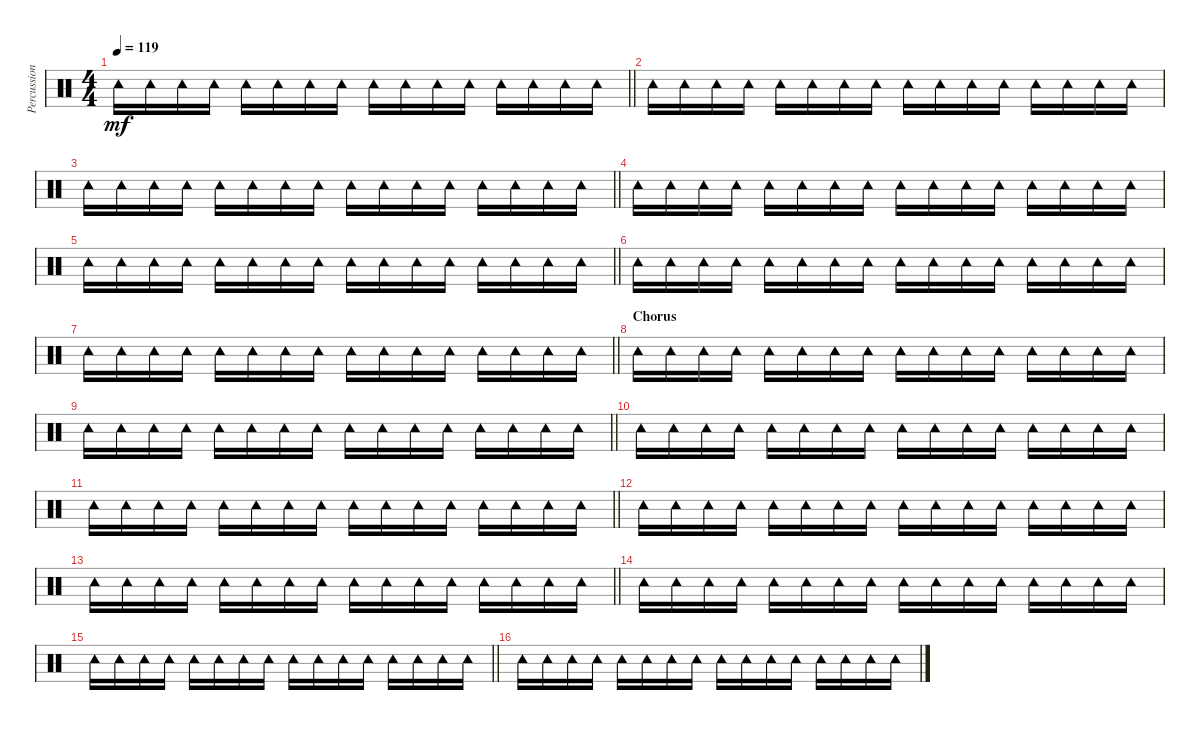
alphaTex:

\track ("Percussions" "Percussion") {instrument percussion}
\staff {score}
\articulation defaults
\ts (4 4)
\tempo 119
\clef neutral
\barLineRight lightlight
\ks c "Tambourine (hit)".16{dy mf} "Tambourine (hit)".16 "Tambourine (hit)".16 "Tambourine (hit)".16 "Tambourine (hit)".16 "Tambourine (hit)".16 "Tambourine (hit)".16 "Tambourine (hit)".16 "Tambourine (hit)".16 "Tambourine (hit)".16 "Tambourine (hit)".16 "Tambourine (hit)".16 "Tambourine (hit)".16 "Tambourine (hit)".16 "Tambourine (hit)".16 "Tambourine (hit)".16
|
"Tambourine (hit)".16 "Tambourine (hit)".16 "Tambourine (hit)".16 "Tambourine (hit)".16 "Tambourine (hit)".16 "Tambourine (hit)".16 "Tambourine (hit)".16 "Tambourine (hit)".16 "Tambourine (hit)".16 "Tambourine (hit)".16 "Tambourine (hit)".16 "Tambourine (hit)".16 "Tambourine (hit)".16 "Tambourine (hit)".16 "Tambourine (hit)".16 "Tambourine (hit)".16 |
\barLineRight lightlight "Tambourine (hit)".16 "Tambourine (hit)".16 "Tambourine (hit)".16 "Tambourine (hit)".16 "Tambourine (hit)".16 "Tambourine (hit)".16 "Tambourine (hit)".16 "Tambourine (hit)".16 "Tambourine (hit)".16 "Tambourine (hit)".16 "Tambourine (hit)".16 "Tambourine (hit)".16 "Tambourine (hit)".16 "Tambourine (hit)".16 "Tambourine (hit)".16 "Tambourine (hit)".16
|
"Tambourine (hit)".16 "Tambourine (hit)".16 "Tambourine (hit)".16 "Tambourine (hit)".16 "Tambourine (hit)".16 "Tambourine (hit)".16 "Tambourine (hit)".16 "Tambourine (hit)".16 "Tambourine (hit)".16 "Tambourine (hit)".16 "Tambourine (hit)".16 "Tambourine (hit)".16 "Tambourine (hit)".16 "Tambourine (hit)".16 "Tambourine (hit)".16 "Tambourine (hit)".16 |
\barLineRight lightlight "Tambourine (hit)".16 "Tambourine (hit)".16 "Tambourine (hit)".16 "Tambourine (hit)".16 "Tambourine (hit)".16 "Tambourine (hit)".16 "Tambourine (hit)".16 "Tambourine (hit)".16 "Tambourine (hit)".16 "Tambourine (hit)".16 "Tambourine (hit)".16 "Tambourine (hit)".16 "Tambourine (hit)".16 "Tambourine (hit)".16 "Tambourine (hit)".16 "Tambourine (hit)".16
|
"Tambourine (hit)".16 "Tambourine (hit)".16 "Tambourine (hit)".16 "Tambourine (hit)".16 "Tambourine (hit)".16 "Tambourine (hit)".16 "Tambourine (hit)".16 "Tambourine (hit)".16 "Tambourine (hit)".16 "Tambourine (hit)".16 "Tambourine (hit)".16 "Tambourine (hit)".16 "Tambourine (hit)".16 "Tambourine (hit)".16 "Tambourine (hit)".16 "Tambourine (hit)".16 |
\barLineRight lightlight "Tambourine (hit)".16 "Tambourine (hit)".16 "Tambourine (hit)".16 "Tambourine (hit)".16 "Tambourine (hit)".16 "Tambourine (hit)".16 "Tambourine (hit)".16 "Tambourine (hit)".16 "Tambourine (hit)".16 "Tambourine (hit)".16 "Tambourine (hit)".16 "Tambourine (hit)".16 "Tambourine (hit)".16 "Tambourine (hit)".16 "Tambourine (hit)".16 "Tambourine (hit)".16
|
\section ("" "Chorus")
"Tambourine (hit)".16 "Tambourine (hit)".16 "Tambourine (hit)".16 "Tambourine (hit)".16 "Tambourine (hit)".16 "Tambourine (hit)".16 "Tambourine (hit)".16 "Tambourine (hit)".16 "Tambourine (hit)".16 "Tambourine (hit)".16 "Tambourine (hit)".16 "Tambourine (hit)".16 "Tambourine (hit)".16 "Tambourine (hit)".16 "Tambourine (hit)".16 "Tambourine (hit)".16 |
\barLineRight lightlight "Tambourine (hit)".16 "Tambourine (hit)".16 "Tambourine (hit)".16 "Tambourine (hit)".16 "Tambourine (hit)".16 "Tambourine (hit)".16 "Tambourine (hit)".16 "Tambourine (hit)".16 "Tambourine (hit)".16 "Tambourine (hit)".16 "Tambourine (hit)".16 "Tambourine (hit)".16 "Tambourine (hit)".16 "Tambourine (hit)".16 "Tambourine (hit)".16 "Tambourine (hit)".16
|
"Tambourine (hit)".16 "Tambourine (hit)".16 "Tambourine (hit)".16 "Tambourine (hit)".16 "Tambourine (hit)".16 "Tambourine (hit)".16 "Tambourine (hit)".16 "Tambourine (hit)".16 "Tambourine (hit)".16 "Tambourine (hit)".16 "Tambourine (hit)".16 "Tambourine (hit)".16 "Tambourine (hit)".16 "Tambourine (hit)".16 "Tambourine (hit)".16 "Tambourine (hit)".16 |
\barLineRight lightlight "Tambourine (hit)".16 "Tambourine (hit)".16 "Tambourine (hit)".16 "Tambourine (hit)".16 "Tambourine (hit)".16 "Tambourine (hit)".16 "Tambourine (hit)".16 "Tambourine (hit)".16 "Tambourine (hit)".16 "Tambourine (hit)".16 "Tambourine (hit)".16 "Tambourine (hit)".16 "Tambourine (hit)".16 "Tambourine (hit)".16 "Tambourine (hit)".16 "Tambourine (hit)".16
|
"Tambourine (hit)".16 "Tambourine (hit)".16 "Tambourine (hit)".16 "Tambourine (hit)".16 "Tambourine (hit)".16 "Tambourine (hit)".16 "Tambourine (hit)".16 "Tambourine (hit)".16 "Tambourine (hit)".16 "Tambourine (hit)".16 "Tambourine (hit)".16 "Tambourine (hit)".16 "Tambourine (hit)".16 "Tambourine (hit)".16 "Tambourine (hit)".16 "Tambourine (hit)".16 |
\barLineRight lightlight "Tambourine (hit)".16 "Tambourine (hit)".16 "Tambourine (hit)".16 "Tambourine (hit)".16 "Tambourine (hit)".16 "Tambourine (hit)".16 "Tambourine (hit)".16 "Tambourine (hit)".16 "Tambourine (hit)".16 "Tambourine (hit)".16 "Tambourine (hit)".16 "Tambourine (hit)".16 "Tambourine (hit)".16 "Tambourine (hit)".16 "Tambourine (hit)".16 "Tambourine (hit)".16
|
"Tambourine (hit)".16 "Tambourine (hit)".16 "Tambourine (hit)".16 "Tambourine (hit)".16 "Tambourine (hit)".16 "Tambourine (hit)".16 "Tambourine (hit)".16 "Tambourine (hit)".16 "Tambourine (hit)".16 "Tambourine (hit)".16 "Tambourine (hit)".16 "Tambourine (hit)".16 "Tambourine (hit)".16 "Tambourine (hit)".16 "Tambourine (hit)".16 "Tambourine (hit)".16 |
\barLineRight lightlight "Tambourine (hit)".16 "Tambourine (hit)".16 "Tambourine (hit)".16 "Tambourine (hit)".16 "Tambourine (hit)".16 "Tambourine (hit)".16 "Tambourine (hit)".16 "Tambourine (hit)".16 "Tambourine (hit)".16 "Tambourine (hit)".16 "Tambourine (hit)".16 "Tambourine (hit)".16 "Tambourine (hit)".16 "Tambourine (hit)".16 "Tambourine (hit)".16 "Tambourine (hit)".16
|
"Tambourine (hit)".16 "Tambourine (hit)".16 "Tambourine (hit)".16 "Tambourine (hit)".16 "Tambourine (hit)".16 "Tambourine (hit)".16 "Tambourine (hit)".16 "Tambourine (hit)".16 "Tambourine (hit)".16 "Tambourine (hit)".16 "Tambourine (hit)".16 "Tambourine (hit)".16 "Tambourine (hit)".16 "Tambourine (hit)".16 "Tambourine (hit)".16 "Tambourine (hit)".16
